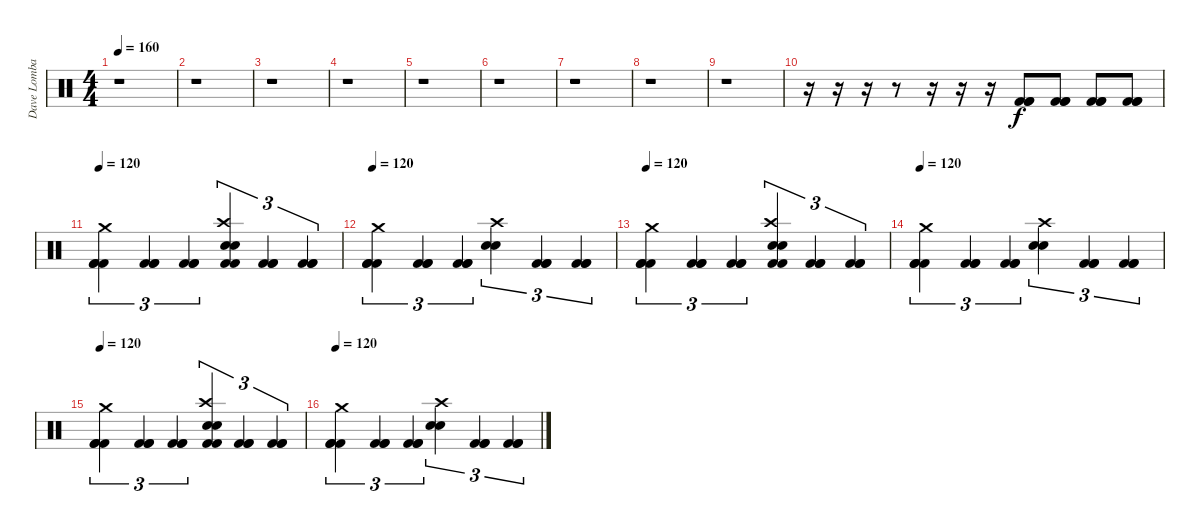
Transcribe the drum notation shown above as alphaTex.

\track ("Dave Lombardo" "Dave Lomba") {instrument percussion}
\staff {score}
\articulation defaults
\ts (4 4)
\tempo 160
\tempo 120
\tempo 160
\clef neutral
\ks c
r.1{dy f} |
r.1 |
r.1 |
r.1 |
r.1 |
r.1 |
r.1 |
r.1 |
r.1 |
r.16 r.16 r.16 r.8 r.16 r.16 r.16 ("Kick (hit) 2" "Kick (hit) 2" "Kick (hit) 2").8 ("Kick (hit) 2" "Kick (hit) 2" "Kick (hit) 2").8 ("Kick (hit) 2" "Kick (hit) 2" "Kick (hit) 2").8 ("Kick (hit) 2" "Kick (hit) 2" "Kick (hit) 2").8 |
\tempo 110
\tempo 120
("Crash medium (hit)" "Kick (hit) 2" "Kick (hit) 2" "Kick (hit) 2").4{tu (3 2)} ("Kick (hit) 2" "Kick (hit) 2" "Kick (hit) 2").4{tu (3 2)} ("Kick (hit) 2" "Kick (hit) 2" "Kick (hit) 2").4{tu (3 2)} ("Crash high (hit)" "Snare (hit) 2" "Snare (hit) 2" "Kick (hit) 2" "Kick (hit) 2").4{tu (3 2)} ("Kick (hit) 2" "Kick (hit) 2" "Kick (hit) 2").4{tu (3 2)} ("Kick (hit) 2" "Kick (hit) 2" "Kick (hit) 2").4{tu (3 2)} |
\tempo 120
("Crash medium (hit)" "Kick (hit) 2" "Kick (hit) 2" "Kick (hit) 2").4{tu (3 2)} ("Kick (hit) 2" "Kick (hit) 2" "Kick (hit) 2").4{tu (3 2)} ("Kick (hit) 2" "Kick (hit) 2" "Kick (hit) 2").4{tu (3 2)} ("Crash high (hit)" "Snare (hit) 2" "Snare (hit) 2").4{tu (3 2)} ("Kick (hit) 2" "Kick (hit) 2" "Kick (hit) 2").4{tu (3 2)} ("Kick (hit) 2" "Kick (hit) 2" "Kick (hit) 2").4{tu (3 2)} |
\tempo 120
("Crash medium (hit)" "Kick (hit) 2" "Kick (hit) 2" "Kick (hit) 2").4{tu (3 2)} ("Kick (hit) 2" "Kick (hit) 2" "Kick (hit) 2").4{tu (3 2)} ("Kick (hit) 2" "Kick (hit) 2" "Kick (hit) 2").4{tu (3 2)} ("Crash high (hit)" "Snare (hit) 2" "Snare (hit) 2" "Kick (hit) 2" "Kick (hit) 2").4{tu (3 2)} ("Kick (hit) 2" "Kick (hit) 2" "Kick (hit) 2").4{tu (3 2)} ("Kick (hit) 2" "Kick (hit) 2" "Kick (hit) 2").4{tu (3 2)} |
\tempo 120
("Crash medium (hit)" "Kick (hit) 2" "Kick (hit) 2" "Kick (hit) 2").4{tu (3 2)} ("Kick (hit) 2" "Kick (hit) 2" "Kick (hit) 2").4{tu (3 2)} ("Kick (hit) 2" "Kick (hit) 2" "Kick (hit) 2").4{tu (3 2)} ("Crash high (hit)" "Snare (hit) 2" "Snare (hit) 2").4{tu (3 2)} ("Kick (hit) 2" "Kick (hit) 2" "Kick (hit) 2").4{tu (3 2)} ("Kick (hit) 2" "Kick (hit) 2" "Kick (hit) 2").4{tu (3 2)} |
\tempo 120
("Crash medium (hit)" "Kick (hit) 2" "Kick (hit) 2" "Kick (hit) 2").4{tu (3 2)} ("Kick (hit) 2" "Kick (hit) 2" "Kick (hit) 2").4{tu (3 2)} ("Kick (hit) 2" "Kick (hit) 2" "Kick (hit) 2").4{tu (3 2)} ("Crash high (hit)" "Snare (hit) 2" "Snare (hit) 2" "Kick (hit) 2" "Kick (hit) 2").4{tu (3 2)} ("Kick (hit) 2" "Kick (hit) 2" "Kick (hit) 2").4{tu (3 2)} ("Kick (hit) 2" "Kick (hit) 2" "Kick (hit) 2").4{tu (3 2)} |
\tempo 120
("Crash medium (hit)" "Kick (hit) 2" "Kick (hit) 2" "Kick (hit) 2").4{tu (3 2)} ("Kick (hit) 2" "Kick (hit) 2" "Kick (hit) 2").4{tu (3 2)} ("Kick (hit) 2" "Kick (hit) 2" "Kick (hit) 2").4{tu (3 2)} ("Crash high (hit)" "Snare (hit) 2" "Snare (hit) 2").4{tu (3 2)} ("Kick (hit) 2" "Kick (hit) 2" "Kick (hit) 2").4{tu (3 2)} ("Kick (hit) 2" "Kick (hit) 2" "Kick (hit) 2").4{tu (3 2)}
